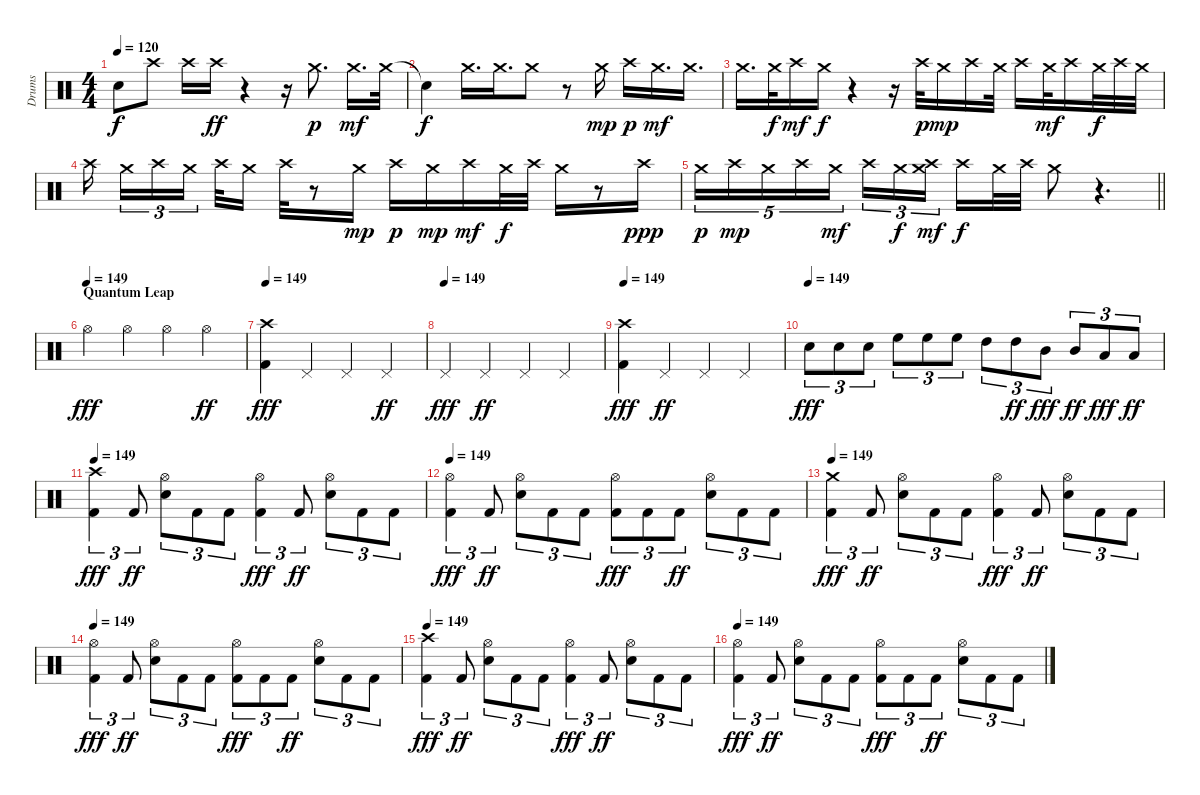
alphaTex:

\track ("Drums" "Drums") {instrument percussion}
\staff {score}
\articulation defaults
\ts (4 4)
\tempo 120
\clef neutral
\ks c "Snare (hit)"{t}.8{dy f} "Crash high (hit)".8 "Crash high (hit)".16 "Crash high (hit)".16{dy ff}
r.4 r.16 "Crash medium (hit)".8{d dy p} "Crash medium (hit)".16{d dy mf} "Crash medium (hit)".32 |
"Snare (hit)"{t}.4{dy f} "Crash medium (hit)".16{d} "Crash medium (hit)".16{d} "Crash medium (hit)".8 r.8 "Crash medium (hit)".16{dy mp} "Crash high (hit)".16{dy p} "Crash medium (hit)".16{d dy mf} "Crash medium (hit)".16{d} |
"Crash medium (hit)".16{d} "Crash medium (hit)".32{dy f} "Crash high (hit)".16{dy mf} "Crash medium (hit)".16{dy f} r.4 r.16 "Crash high (hit)".32{dy p} "Crash medium (hit)".16{dy mp} "Crash high (hit)".16 "Crash medium (hit)".32 "Crash high (hit)".16 "Crash medium (hit)".32{dy mf} "Crash high (hit)".16 "Crash medium (hit)".32{dy f} "Crash high (hit)".32 "Crash medium (hit)".32 |
"Crash high (hit)".16{beam splitsecondary} "Crash medium (hit)".16{tu (3 2)} "Crash high (hit)".16{tu (3 2)} "Crash medium (hit)".16{tu (3 2) beam splitsecondary} "Crash high (hit)".32 "Crash medium (hit)".16 "Crash high (hit)".32 r.8 "Crash medium (hit)".16{dy mp} "Crash high (hit)".16{dy p} "Crash medium (hit)".16{dy mp} "Crash high (hit)".16{dy mf} "Crash medium (hit)".32{dy f} "Crash high (hit)".32 "Crash medium (hit)".16 r.8 "Crash high (hit)".16{dy ppp} |
\barLineRight lightlight "Crash medium (hit)".16{tu (5 4) dy p} "Crash high (hit)".16{tu (5 4) dy mp} "Crash medium (hit)".16{tu (5 4)} "Crash high (hit)".16{tu (5 4)} "Crash medium (hit)".16{tu (5 4) dy mf} "Crash high (hit)".16{tu (3 2)} "Crash medium (hit)".16{tu (3 2) dy f}
("Crash high (hit)" "Crash medium (hit)").16{tu (3 2) dy mf beam splitsecondary} "Crash high (hit)".16{dy f} "Crash medium (hit)".32 "Crash high (hit)".32 "Crash medium (hit)".8 r.4{d} |
\section ("" "Quantum Leap")
\tempo (149)
"Hi-Hat (open)".4{dy fff} "Hi-Hat (open)".4 "Hi-Hat (open)".4 "Hi-Hat (open)".4{dy ff} |
\tempo 149
("Kick (hit) 2" "Crash high (hit)").4{dy fff} "Pedal Hi-Hat (hit)".4 "Pedal Hi-Hat (hit)".4 "Pedal Hi-Hat (hit)".4{dy ff} |
\tempo (149)
"Pedal Hi-Hat (hit)".4{dy fff} "Pedal Hi-Hat (hit)".4{dy ff} "Pedal Hi-Hat (hit)".4 "Pedal Hi-Hat (hit)".4 |
\tempo 149
("Kick (hit) 2" "Crash high (hit)").4{dy fff} "Pedal Hi-Hat (hit)".4{dy ff} "Pedal Hi-Hat (hit)".4 "Pedal Hi-Hat (hit)".4 |
\tempo (149)
"Electric Snare (hit)".8{tu (3 2) dy fff} "Electric Snare (hit)".8{tu (3 2)} "Electric Snare (hit)".8{tu (3 2)} "High Floor Tom (hit)".8{tu (3 2)} "High Floor Tom (hit)".8{tu (3 2)} "High Floor Tom (hit)".8{tu (3 2)} "High Tom (hit)".8{tu (3 2)} "High Tom (hit)".8{tu (3 2) dy ff} "Mid Tom (hit)".8{tu (3 2) dy fff} "Mid Tom (hit)".8{tu (3 2) dy ff} "Low Tom (hit)".8{tu (3 2) dy fff} "Low Tom (hit)".8{tu (3 2) dy ff} |
\tempo 149
("Kick (hit) 2" "Crash high (hit)").4{tu (3 2) dy fff} "Kick (hit) 2".8{tu (3 2) dy ff} ("Snare (hit) 2" "Hi-Hat (open)").8{tu (3 2)} "Kick (hit) 2".8{tu (3 2)} "Kick (hit) 2".8{tu (3 2)} ("Kick (hit) 2" "Hi-Hat (open)").4{tu (3 2) dy fff} "Kick (hit) 2".8{tu (3 2) dy ff} ("Snare (hit) 2" "Hi-Hat (open)").8{tu (3 2)} "Kick (hit) 2".8{tu (3 2)} "Kick (hit) 2".8{tu (3 2)} |
\tempo 149
("Kick (hit) 2" "Hi-Hat (open)").4{tu (3 2) dy fff} "Kick (hit) 2".8{tu (3 2) dy ff} ("Snare (hit) 2" "Hi-Hat (open)").8{tu (3 2)} "Kick (hit) 2".8{tu (3 2)} "Kick (hit) 2".8{tu (3 2)} ("Kick (hit) 2" "Hi-Hat (open)").8{tu (3 2) dy fff} "Kick (hit) 2".8{tu (3 2)} "Kick (hit) 2".8{tu (3 2) dy ff} ("Snare (hit) 2" "Hi-Hat (open)").8{tu (3 2)} "Kick (hit) 2".8{tu (3 2)} "Kick (hit) 2".8{tu (3 2)} |
\tempo 149
("Kick (hit) 2" "Crash medium (hit)").4{tu (3 2) dy fff} "Kick (hit) 2".8{tu (3 2) dy ff} ("Snare (hit) 2" "Hi-Hat (open)").8{tu (3 2)} "Kick (hit) 2".8{tu (3 2)} "Kick (hit) 2".8{tu (3 2)} ("Kick (hit) 2" "Hi-Hat (open)").4{tu (3 2) dy fff} "Kick (hit) 2".8{tu (3 2) dy ff} ("Snare (hit) 2" "Hi-Hat (open)").8{tu (3 2)} "Kick (hit) 2".8{tu (3 2)} "Kick (hit) 2".8{tu (3 2)} |
\tempo 149
("Kick (hit) 2" "Hi-Hat (open)").4{tu (3 2) dy fff} "Kick (hit) 2".8{tu (3 2) dy ff} ("Snare (hit) 2" "Hi-Hat (open)").8{tu (3 2)} "Kick (hit) 2".8{tu (3 2)} "Kick (hit) 2".8{tu (3 2)} ("Kick (hit) 2" "Hi-Hat (open)").8{tu (3 2) dy fff} "Kick (hit) 2".8{tu (3 2)} "Kick (hit) 2".8{tu (3 2) dy ff} ("Snare (hit) 2" "Hi-Hat (open)").8{tu (3 2)} "Kick (hit) 2".8{tu (3 2)} "Kick (hit) 2".8{tu (3 2)} |
\tempo 149
("Kick (hit) 2" "Crash high (hit)").4{tu (3 2) dy fff} "Kick (hit) 2".8{tu (3 2) dy ff} ("Snare (hit) 2" "Hi-Hat (open)").8{tu (3 2)} "Kick (hit) 2".8{tu (3 2)} "Kick (hit) 2".8{tu (3 2)} ("Kick (hit) 2" "Hi-Hat (open)").4{tu (3 2) dy fff} "Kick (hit) 2".8{tu (3 2) dy ff} ("Snare (hit) 2" "Hi-Hat (open)").8{tu (3 2)} "Kick (hit) 2".8{tu (3 2)} "Kick (hit) 2".8{tu (3 2)} |
\tempo 149
("Kick (hit) 2" "Hi-Hat (open)").4{tu (3 2) dy fff} "Kick (hit) 2".8{tu (3 2) dy ff} ("Snare (hit) 2" "Hi-Hat (open)").8{tu (3 2)} "Kick (hit) 2".8{tu (3 2)} "Kick (hit) 2".8{tu (3 2)} ("Kick (hit) 2" "Hi-Hat (open)").8{tu (3 2) dy fff} "Kick (hit) 2".8{tu (3 2)} "Kick (hit) 2".8{tu (3 2) dy ff} ("Snare (hit) 2" "Hi-Hat (open)").8{tu (3 2)} "Kick (hit) 2".8{tu (3 2)} "Kick (hit) 2".8{tu (3 2)}
